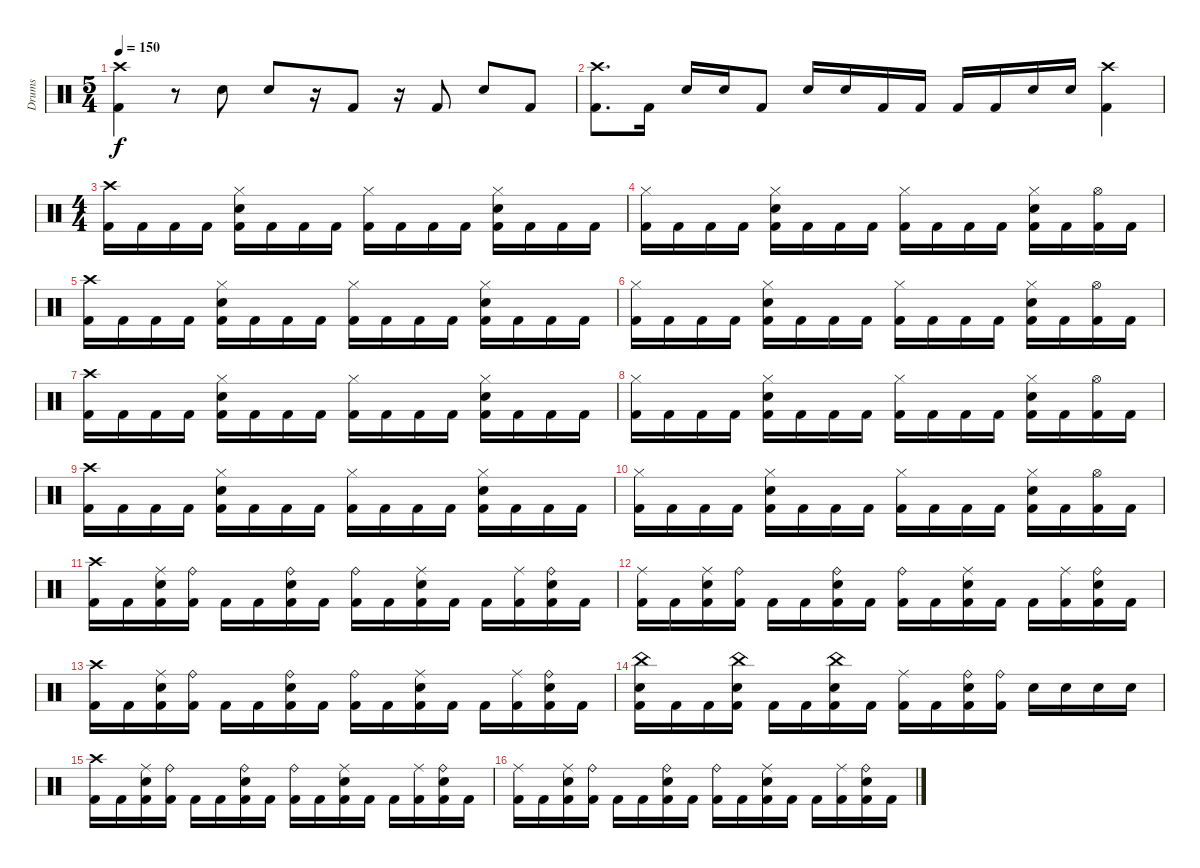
\track ("Drums" "Drums") {instrument percussion}
\staff {score}
\articulation defaults
\ts (5 4)
\tempo 150
\clef neutral
\ks c
("Crash high (hit)" "Kick (hit) 2").4{dy f} r.8 "Snare (hit) 2".8 "Snare (hit) 2".8 r.16 "Kick (hit) 2".8 r.16 "Kick (hit) 2".8 "Snare (hit) 2".8 "Kick (hit) 2".8 |
("Crash high (hit)" "Kick (hit) 2").8{d} "Kick (hit) 2".16 "Snare (hit) 2".16 "Snare (hit) 2".16 "Kick (hit) 2".8 "Snare (hit) 2".16 "Snare (hit) 2".16 "Kick (hit) 2".16 "Kick (hit) 2".16 "Kick (hit) 2".16 "Kick (hit) 2".16 "Snare (hit) 2".16 "Snare (hit) 2".16 ("Crash high (hit)" "Kick (hit) 2").4 |
\ts (4 4)
("Crash high (hit)" "Kick (hit) 2").16 "Kick (hit) 2".16 "Kick (hit) 2".16 "Kick (hit) 2".16 ("Hi-Hat (closed)" "Snare (hit) 2" "Kick (hit) 2").16 "Kick (hit) 2".16 "Kick (hit) 2".16 "Kick (hit) 2".16 ("Hi-Hat (closed)" "Kick (hit) 2").16 "Kick (hit) 2".16 "Kick (hit) 2".16 "Kick (hit) 2".16 ("Hi-Hat (closed)" "Snare (hit) 2" "Kick (hit) 2").16 "Kick (hit) 2".16 "Kick (hit) 2".16 "Kick (hit) 2".16 |
("Hi-Hat (closed)" "Kick (hit) 2").16 "Kick (hit) 2".16 "Kick (hit) 2".16 "Kick (hit) 2".16 ("Hi-Hat (closed)" "Snare (hit) 2" "Kick (hit) 2").16 "Kick (hit) 2".16 "Kick (hit) 2".16 "Kick (hit) 2".16 ("Hi-Hat (closed)" "Kick (hit) 2").16 "Kick (hit) 2".16 "Kick (hit) 2".16 "Kick (hit) 2".16 ("Hi-Hat (closed)" "Snare (hit) 2" "Kick (hit) 2").16 "Kick (hit) 2".16 ("Hi-Hat (open)" "Kick (hit) 2").16 "Kick (hit) 2".16 |
("Crash high (hit)" "Kick (hit) 2").16 "Kick (hit) 2".16 "Kick (hit) 2".16 "Kick (hit) 2".16 ("Hi-Hat (closed)" "Snare (hit) 2" "Kick (hit) 2").16 "Kick (hit) 2".16 "Kick (hit) 2".16 "Kick (hit) 2".16 ("Hi-Hat (closed)" "Kick (hit) 2").16 "Kick (hit) 2".16 "Kick (hit) 2".16 "Kick (hit) 2".16 ("Hi-Hat (closed)" "Snare (hit) 2" "Kick (hit) 2").16 "Kick (hit) 2".16 "Kick (hit) 2".16 "Kick (hit) 2".16 |
("Hi-Hat (closed)" "Kick (hit) 2").16 "Kick (hit) 2".16 "Kick (hit) 2".16 "Kick (hit) 2".16 ("Hi-Hat (closed)" "Snare (hit) 2" "Kick (hit) 2").16 "Kick (hit) 2".16 "Kick (hit) 2".16 "Kick (hit) 2".16 ("Hi-Hat (closed)" "Kick (hit) 2").16 "Kick (hit) 2".16 "Kick (hit) 2".16 "Kick (hit) 2".16 ("Hi-Hat (closed)" "Snare (hit) 2" "Kick (hit) 2").16 "Kick (hit) 2".16 ("Hi-Hat (open)" "Kick (hit) 2").16 "Kick (hit) 2".16 |
("Crash high (hit)" "Kick (hit) 2").16 "Kick (hit) 2".16 "Kick (hit) 2".16 "Kick (hit) 2".16 ("Hi-Hat (closed)" "Snare (hit) 2" "Kick (hit) 2").16 "Kick (hit) 2".16 "Kick (hit) 2".16 "Kick (hit) 2".16 ("Hi-Hat (closed)" "Kick (hit) 2").16 "Kick (hit) 2".16 "Kick (hit) 2".16 "Kick (hit) 2".16 ("Hi-Hat (closed)" "Snare (hit) 2" "Kick (hit) 2").16 "Kick (hit) 2".16 "Kick (hit) 2".16 "Kick (hit) 2".16 |
("Hi-Hat (closed)" "Kick (hit) 2").16 "Kick (hit) 2".16 "Kick (hit) 2".16 "Kick (hit) 2".16 ("Hi-Hat (closed)" "Snare (hit) 2" "Kick (hit) 2").16 "Kick (hit) 2".16 "Kick (hit) 2".16 "Kick (hit) 2".16 ("Hi-Hat (closed)" "Kick (hit) 2").16 "Kick (hit) 2".16 "Kick (hit) 2".16 "Kick (hit) 2".16 ("Hi-Hat (closed)" "Snare (hit) 2" "Kick (hit) 2").16 "Kick (hit) 2".16 ("Hi-Hat (open)" "Kick (hit) 2").16 "Kick (hit) 2".16 |
("Crash high (hit)" "Kick (hit) 2").16 "Kick (hit) 2".16 "Kick (hit) 2".16 "Kick (hit) 2".16 ("Hi-Hat (closed)" "Snare (hit) 2" "Kick (hit) 2").16 "Kick (hit) 2".16 "Kick (hit) 2".16 "Kick (hit) 2".16 ("Hi-Hat (closed)" "Kick (hit) 2").16 "Kick (hit) 2".16 "Kick (hit) 2".16 "Kick (hit) 2".16 ("Hi-Hat (closed)" "Snare (hit) 2" "Kick (hit) 2").16 "Kick (hit) 2".16 "Kick (hit) 2".16 "Kick (hit) 2".16 |
("Hi-Hat (closed)" "Kick (hit) 2").16 "Kick (hit) 2".16 "Kick (hit) 2".16 "Kick (hit) 2".16 ("Hi-Hat (closed)" "Snare (hit) 2" "Kick (hit) 2").16 "Kick (hit) 2".16 "Kick (hit) 2".16 "Kick (hit) 2".16 ("Hi-Hat (closed)" "Kick (hit) 2").16 "Kick (hit) 2".16 "Kick (hit) 2".16 "Kick (hit) 2".16 ("Hi-Hat (closed)" "Snare (hit) 2" "Kick (hit) 2").16 "Kick (hit) 2".16 ("Hi-Hat (open)" "Kick (hit) 2").16 "Kick (hit) 2".16 |
("Crash high (hit)" "Kick (hit) 2").16 "Kick (hit) 2".16 ("Ride (middle)" "Snare (hit) 2" "Kick (hit) 2").16 ("Ride (bell)" "Kick (hit) 2").16 "Kick (hit) 2".16 "Kick (hit) 2".16 ("Ride (bell)" "Snare (hit) 2" "Kick (hit) 2").16 "Kick (hit) 2".16 ("Ride (bell)" "Kick (hit) 2").16 "Kick (hit) 2".16 ("Ride (middle)" "Snare (hit) 2" "Kick (hit) 2").16 "Kick (hit) 2".16 "Kick (hit) 2".16 ("Ride (middle)" "Kick (hit) 2").16 ("Ride (bell)" "Snare (hit) 2" "Kick (hit) 2").16 "Kick (hit) 2".16 |
("Ride (middle)" "Kick (hit) 2").16 "Kick (hit) 2".16 ("Ride (middle)" "Snare (hit) 2" "Kick (hit) 2").16 ("Ride (bell)" "Kick (hit) 2").16 "Kick (hit) 2".16 "Kick (hit) 2".16 ("Ride (bell)" "Snare (hit) 2" "Kick (hit) 2").16 "Kick (hit) 2".16 ("Ride (bell)" "Kick (hit) 2").16 "Kick (hit) 2".16 ("Ride (middle)" "Snare (hit) 2" "Kick (hit) 2").16 "Kick (hit) 2".16 "Kick (hit) 2".16 ("Ride (middle)" "Kick (hit) 2").16 ("Ride (bell)" "Snare (hit) 2" "Kick (hit) 2").16 "Kick (hit) 2".16 |
("Crash high (hit)" "Kick (hit) 2").16 "Kick (hit) 2".16 ("Ride (middle)" "Snare (hit) 2" "Kick (hit) 2").16 ("Ride (bell)" "Kick (hit) 2").16 "Kick (hit) 2".16 "Kick (hit) 2".16 ("Ride (bell)" "Snare (hit) 2" "Kick (hit) 2").16 "Kick (hit) 2".16 ("Ride (bell)" "Kick (hit) 2").16 "Kick (hit) 2".16 ("Ride (middle)" "Snare (hit) 2" "Kick (hit) 2").16 "Kick (hit) 2".16 "Kick (hit) 2".16 ("Ride (middle)" "Kick (hit) 2").16 ("Ride (bell)" "Snare (hit) 2" "Kick (hit) 2").16 "Kick (hit) 2".16 |
("China (hit)" "Snare (hit) 2" "Kick (hit) 2").16 "Kick (hit) 2".16 "Kick (hit) 2".16 ("China (hit)" "Snare (hit) 2" "Kick (hit) 2").16 "Kick (hit) 2".16 "Kick (hit) 2".16 ("China (hit)" "Snare (hit) 2" "Kick (hit) 2").16 "Kick (hit) 2".16 ("Ride (middle)" "Kick (hit) 2").16 "Kick (hit) 2".16 ("Ride (bell)" "Snare (hit) 2" "Kick (hit) 2").16 ("Ride (bell)" "Kick (hit) 2").16 "Snare (hit) 2".16 "Snare (hit) 2".16 "Snare (hit) 2".16 "Snare (hit) 2".16 |
("Crash high (hit)" "Kick (hit) 2").16 "Kick (hit) 2".16 ("Ride (middle)" "Snare (hit) 2" "Kick (hit) 2").16 ("Ride (bell)" "Kick (hit) 2").16 "Kick (hit) 2".16 "Kick (hit) 2".16 ("Ride (bell)" "Snare (hit) 2" "Kick (hit) 2").16 "Kick (hit) 2".16 ("Ride (bell)" "Kick (hit) 2").16 "Kick (hit) 2".16 ("Ride (middle)" "Snare (hit) 2" "Kick (hit) 2").16 "Kick (hit) 2".16 "Kick (hit) 2".16 ("Ride (middle)" "Kick (hit) 2").16 ("Ride (bell)" "Snare (hit) 2" "Kick (hit) 2").16 "Kick (hit) 2".16 |
("Ride (middle)" "Kick (hit) 2").16 "Kick (hit) 2".16 ("Ride (middle)" "Snare (hit) 2" "Kick (hit) 2").16 ("Ride (bell)" "Kick (hit) 2").16 "Kick (hit) 2".16 "Kick (hit) 2".16 ("Ride (bell)" "Snare (hit) 2" "Kick (hit) 2").16 "Kick (hit) 2".16 ("Ride (bell)" "Kick (hit) 2").16 "Kick (hit) 2".16 ("Ride (middle)" "Snare (hit) 2" "Kick (hit) 2").16 "Kick (hit) 2".16 "Kick (hit) 2".16 ("Ride (middle)" "Kick (hit) 2").16 ("Ride (bell)" "Snare (hit) 2" "Kick (hit) 2").16 "Kick (hit) 2".16
